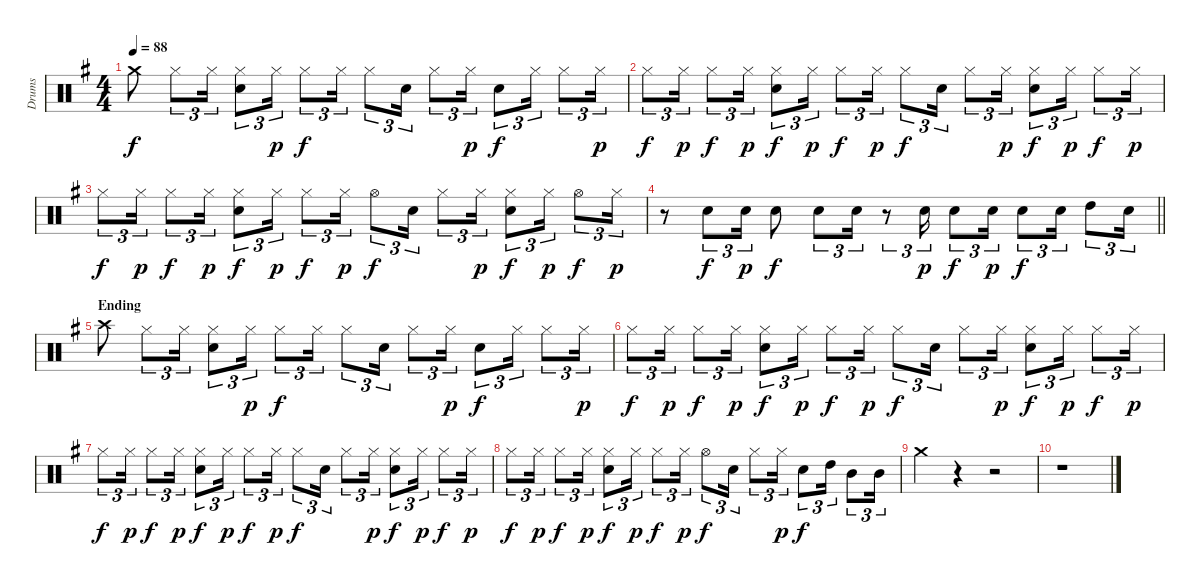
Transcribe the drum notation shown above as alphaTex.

\track ("Drums" "Drums") {instrument percussion}
\staff {score}
\articulation defaults
\ts (4 4)
\tempo 88
\clef neutral
\ks g "Crash medium (hit)".8{dy f} "Hi-Hat (closed)".8{tu (3 2)} "Hi-Hat (closed)".16{tu (3 2)}
("Hi-Hat (closed)" "Snare (hit) 2").8{tu (3 2)} "Hi-Hat (closed)".16{tu (3 2) dy p} "Hi-Hat (closed)".8{tu (3 2) dy f} "Hi-Hat (closed)".16{tu (3 2)} "Hi-Hat (closed)".8{tu (3 2)} "Snare (hit) 2".16{tu (3 2)} "Hi-Hat (closed)".8{tu (3 2)} "Hi-Hat (closed)".16{tu (3 2) dy p} "Snare (hit) 2".8{tu (3 2) dy f} "Hi-Hat (closed)".16{tu (3 2)} "Hi-Hat (closed)".8{tu (3 2)} "Hi-Hat (closed)".16{tu (3 2) dy p} |
"Hi-Hat (closed)".8{tu (3 2) dy f} "Hi-Hat (closed)".16{tu (3 2) dy p} "Hi-Hat (closed)".8{tu (3 2) dy f} "Hi-Hat (closed)".16{tu (3 2) dy p} ("Hi-Hat (closed)" "Snare (hit) 2").8{tu (3 2) dy f} "Hi-Hat (closed)".16{tu (3 2) dy p} "Hi-Hat (closed)".8{tu (3 2) dy f} "Hi-Hat (closed)".16{tu (3 2) dy p} "Hi-Hat (closed)".8{tu (3 2) dy f} "Snare (hit) 2".16{tu (3 2)} "Hi-Hat (closed)".8{tu (3 2)} "Hi-Hat (closed)".16{tu (3 2) dy p} ("Hi-Hat (closed)" "Snare (hit) 2").8{tu (3 2) dy f} "Hi-Hat (closed)".16{tu (3 2) dy p} "Hi-Hat (closed)".8{tu (3 2) dy f} "Hi-Hat (closed)".16{tu (3 2) dy p} |
"Hi-Hat (closed)".8{tu (3 2) dy f} "Hi-Hat (closed)".16{tu (3 2) dy p} "Hi-Hat (closed)".8{tu (3 2) dy f} "Hi-Hat (closed)".16{tu (3 2) dy p} ("Hi-Hat (closed)" "Snare (hit) 2").8{tu (3 2) dy f} "Hi-Hat (closed)".16{tu (3 2) dy p} "Hi-Hat (closed)".8{tu (3 2) dy f} "Hi-Hat (closed)".16{tu (3 2) dy p} "Hi-Hat (open)".8{tu (3 2) dy f} "Snare (hit) 2".16{tu (3 2)} "Hi-Hat (closed)".8{tu (3 2)} "Hi-Hat (closed)".16{tu (3 2) dy p} ("Hi-Hat (closed)" "Snare (hit) 2").8{tu (3 2) dy f} "Hi-Hat (closed)".16{tu (3 2) dy p} "Hi-Hat (open)".8{tu (3 2) dy f} "Hi-Hat (closed)".16{tu (3 2) dy p} |
\barLineRight lightlight
r.8 "Snare (hit) 2".8{tu (3 2) dy f} "Snare (hit) 2".16{tu (3 2) dy p} "Snare (hit) 2".8{dy f} "Snare (hit) 2".8{tu (3 2)} "Snare (hit) 2".16{tu (3 2)} r.8{tu (3 2)} "Snare (hit) 2".16{tu (3 2) dy p} "Snare (hit) 2".8{tu (3 2) dy f} "Snare (hit) 2".16{tu (3 2) dy p} "Snare (hit) 2".8{tu (3 2) dy f} "Snare (hit) 2".16{tu (3 2)} "High Tom (hit)".8{tu (3 2)} "Snare (hit) 2".16{tu (3 2)} |
\section ("" "Ending")
"Crash high (hit)".8 "Hi-Hat (closed)".8{tu (3 2)} "Hi-Hat (closed)".16{tu (3 2)} ("Hi-Hat (closed)" "Snare (hit) 2").8{tu (3 2)} "Hi-Hat (closed)".16{tu (3 2) dy p} "Hi-Hat (closed)".8{tu (3 2) dy f} "Hi-Hat (closed)".16{tu (3 2)} "Hi-Hat (closed)".8{tu (3 2)} "Snare (hit) 2".16{tu (3 2)} "Hi-Hat (closed)".8{tu (3 2)} "Hi-Hat (closed)".16{tu (3 2) dy p} "Snare (hit) 2".8{tu (3 2) dy f} "Hi-Hat (closed)".16{tu (3 2)} "Hi-Hat (closed)".8{tu (3 2)} "Hi-Hat (closed)".16{tu (3 2) dy p} |
"Hi-Hat (closed)".8{tu (3 2) dy f} "Hi-Hat (closed)".16{tu (3 2) dy p} "Hi-Hat (closed)".8{tu (3 2) dy f} "Hi-Hat (closed)".16{tu (3 2) dy p} ("Hi-Hat (closed)" "Snare (hit) 2").8{tu (3 2) dy f} "Hi-Hat (closed)".16{tu (3 2) dy p} "Hi-Hat (closed)".8{tu (3 2) dy f} "Hi-Hat (closed)".16{tu (3 2) dy p} "Hi-Hat (closed)".8{tu (3 2) dy f} "Snare (hit) 2".16{tu (3 2)} "Hi-Hat (closed)".8{tu (3 2)} "Hi-Hat (closed)".16{tu (3 2) dy p} ("Hi-Hat (closed)" "Snare (hit) 2").8{tu (3 2) dy f} "Hi-Hat (closed)".16{tu (3 2) dy p} "Hi-Hat (closed)".8{tu (3 2) dy f} "Hi-Hat (closed)".16{tu (3 2) dy p} |
"Hi-Hat (closed)".8{tu (3 2) dy f} "Hi-Hat (closed)".16{tu (3 2) dy p} "Hi-Hat (closed)".8{tu (3 2) dy f} "Hi-Hat (closed)".16{tu (3 2) dy p} ("Hi-Hat (closed)" "Snare (hit) 2").8{tu (3 2) dy f} "Hi-Hat (closed)".16{tu (3 2) dy p} "Hi-Hat (closed)".8{tu (3 2) dy f} "Hi-Hat (closed)".16{tu (3 2) dy p} "Hi-Hat (closed)".8{tu (3 2) dy f} "Snare (hit) 2".16{tu (3 2)} "Hi-Hat (closed)".8{tu (3 2)} "Hi-Hat (closed)".16{tu (3 2) dy p} ("Hi-Hat (closed)" "Snare (hit) 2").8{tu (3 2) dy f} "Hi-Hat (closed)".16{tu (3 2) dy p} "Hi-Hat (closed)".8{tu (3 2) dy f} "Hi-Hat (closed)".16{tu (3 2) dy p} |
"Hi-Hat (closed)".8{tu (3 2) dy f} "Hi-Hat (closed)".16{tu (3 2) dy p} "Hi-Hat (closed)".8{tu (3 2) dy f} "Hi-Hat (closed)".16{tu (3 2) dy p} ("Hi-Hat (closed)" "Snare (hit) 2").8{tu (3 2) dy f} "Hi-Hat (closed)".16{tu (3 2) dy p} "Hi-Hat (closed)".8{tu (3 2) dy f} "Hi-Hat (closed)".16{tu (3 2) dy p} "Hi-Hat (open)".8{tu (3 2) dy f} "Snare (hit) 2".16{tu (3 2)} "Hi-Hat (closed)".8{tu (3 2)} "Hi-Hat (closed)".16{tu (3 2) dy p} "Snare (hit) 2".8{tu (3 2) dy f} "High Tom (hit)".16{tu (3 2)} "Mid Tom (hit)".8{tu (3 2)} "Mid Tom (hit)".16{tu (3 2)} |
"Crash medium (hit)".4 r.4 r.2 |
r.1
